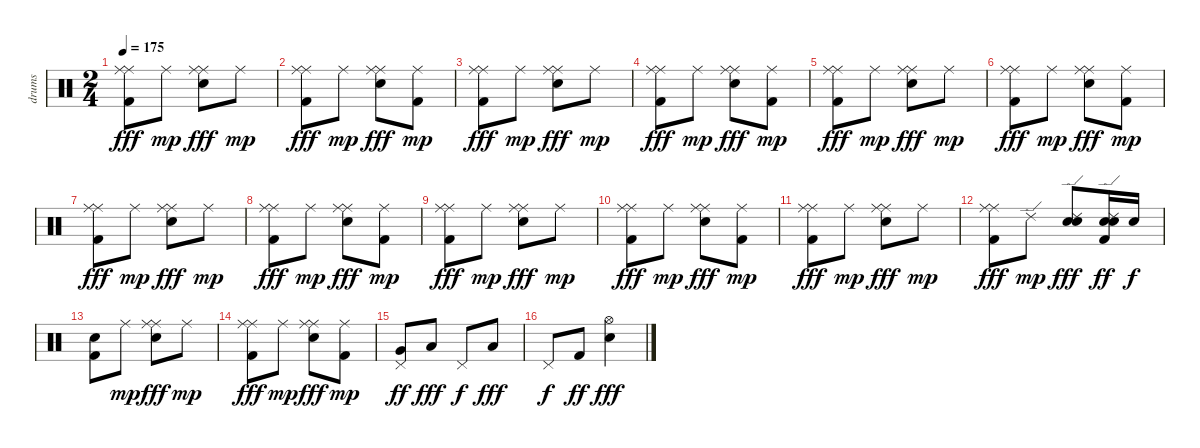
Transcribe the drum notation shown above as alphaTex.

\track ("drums" "drums") {instrument percussion}
\staff {score}
\articulation defaults
\ts (2 4)
\tempo 175
\clef neutral
\ks c
("Ride (middle)" "Ride (middle)" "Kick (hit) 2").8{dy fff} "Ride (middle)".8{dy mp} ("Ride (middle)" "Ride (middle)" "Snare (hit) 2").8{dy fff} "Ride (middle)".8{dy mp} |
("Ride (middle)" "Ride (middle)" "Kick (hit) 2").8{dy fff} "Ride (middle)".8{dy mp} ("Ride (middle)" "Ride (middle)" "Snare (hit) 2").8{dy fff} ("Ride (middle)" "Kick (hit) 2").8{dy mp} |
("Ride (middle)" "Ride (middle)" "Kick (hit) 2").8{dy fff} "Ride (middle)".8{dy mp} ("Ride (middle)" "Ride (middle)" "Snare (hit) 2").8{dy fff} "Ride (middle)".8{dy mp} |
("Ride (middle)" "Ride (middle)" "Kick (hit) 2").8{dy fff} "Ride (middle)".8{dy mp} ("Ride (middle)" "Ride (middle)" "Snare (hit) 2").8{dy fff} ("Ride (middle)" "Kick (hit) 2").8{dy mp} |
("Ride (middle)" "Ride (middle)" "Kick (hit) 2").8{dy fff} "Ride (middle)".8{dy mp} ("Ride (middle)" "Ride (middle)" "Snare (hit) 2").8{dy fff} "Ride (middle)".8{dy mp} |
("Ride (middle)" "Ride (middle)" "Kick (hit) 2").8{dy fff} "Ride (middle)".8{dy mp} ("Ride (middle)" "Ride (middle)" "Snare (hit) 2").8{dy fff} ("Ride (middle)" "Kick (hit) 2").8{dy mp} |
("Ride (middle)" "Ride (middle)" "Kick (hit) 2").8{dy fff} "Ride (middle)".8{dy mp} ("Ride (middle)" "Ride (middle)" "Snare (hit) 2").8{dy fff} "Ride (middle)".8{dy mp} |
("Ride (middle)" "Ride (middle)" "Kick (hit) 2").8{dy fff} "Ride (middle)".8{dy mp} ("Ride (middle)" "Ride (middle)" "Snare (hit) 2").8{dy fff} ("Ride (middle)" "Kick (hit) 2").8{dy mp} |
("Ride (middle)" "Ride (middle)" "Kick (hit) 2").8{dy fff} "Ride (middle)".8{dy mp} ("Ride (middle)" "Ride (middle)" "Snare (hit) 2").8{dy fff} "Ride (middle)".8{dy mp} |
("Ride (middle)" "Ride (middle)" "Kick (hit) 2").8{dy fff} "Ride (middle)".8{dy mp} ("Ride (middle)" "Ride (middle)" "Snare (hit) 2").8{dy fff} ("Ride (middle)" "Kick (hit) 2").8{dy mp} |
("Ride (middle)" "Ride (middle)" "Kick (hit) 2").8{dy fff} "Ride (middle)".8{dy mp} ("Ride (middle)" "Ride (middle)" "Snare (hit) 2").8{dy fff} "Ride (middle)".8{dy mp} |
("Ride (middle)" "Ride (middle)" "Kick (hit) 2").8{dy fff} "Ride (edge) 2".8{dy mp} ("Ride (edge) 2" "Snare (hit) 2" "Snare (hit) 2").8{dy fff} ("Ride (edge) 2" "Snare (hit) 2" "Snare (hit) 2" "Kick (hit) 2").16{dy ff} "Snare (hit) 2".16{dy f} |
("Snare (hit) 2" "Kick (hit) 2").8 "Ride (middle)".8{dy mp} ("Ride (middle)" "Ride (middle)" "Snare (hit) 2").8{dy fff} "Ride (middle)".8{dy mp} |
("Ride (middle)" "Ride (middle)" "Kick (hit) 2").8{dy fff} "Ride (middle)".8{dy mp} ("Ride (middle)" "Ride (middle)" "Snare (hit) 2").8{dy fff} ("Ride (middle)" "Kick (hit) 2").8{dy mp} |
("Pedal Hi-Hat (hit)" "Very Low Tom (hit)").8{dy ff} "Low Floor Tom (hit)".8{dy fff} "Pedal Hi-Hat (hit)".8{dy f} "Low Floor Tom (hit)".8{dy fff} |
"Pedal Hi-Hat (hit)".8{dy f} "Kick (hit) 2".8{dy ff} ("Hi-Hat (open)" "Snare (hit) 2").4{dy fff}
